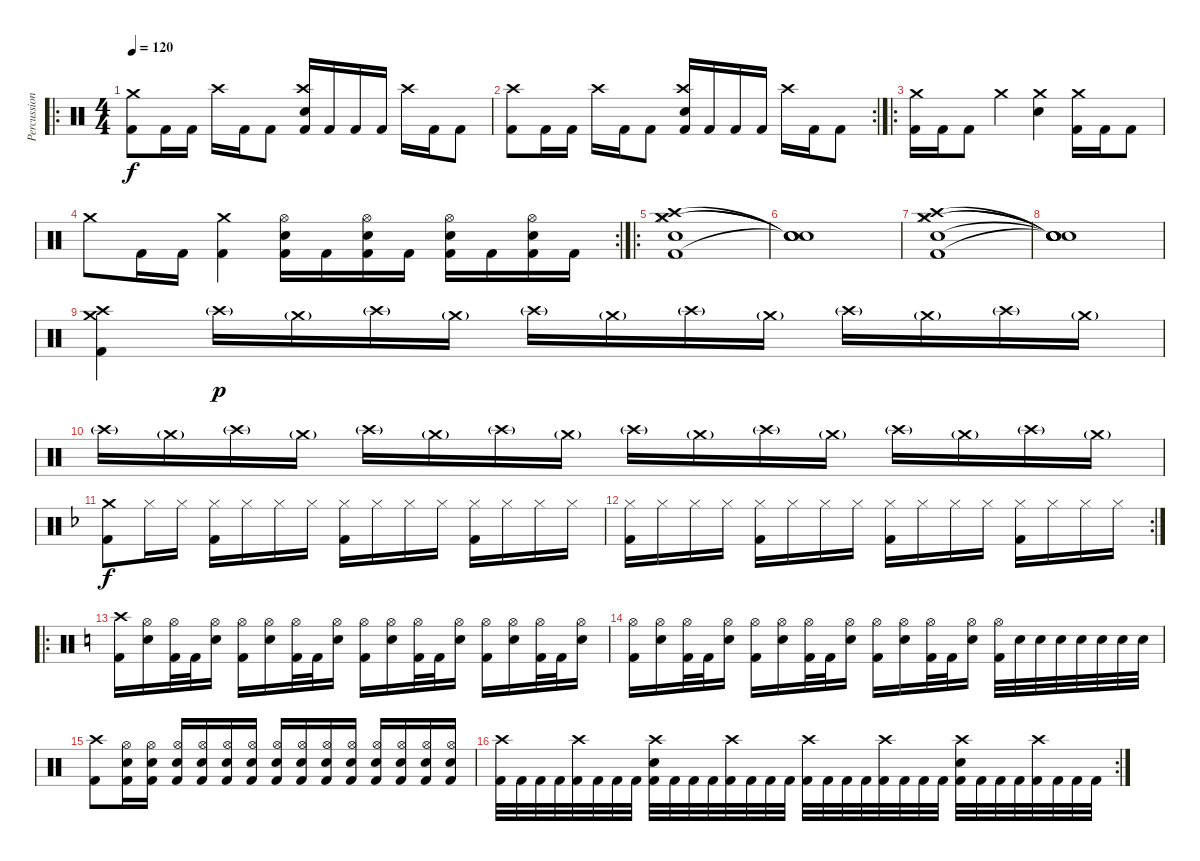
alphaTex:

\track ("Percussions" "Percussion") {instrument percussion}
\staff {score}
\articulation defaults
\ro
\ts (4 4)
\tempo 120
\clef neutral
\ks c
("Crash medium (hit)" "Kick (hit) 2").8{dy f} "Kick (hit) 2".16 "Kick (hit) 2".16 "Crash high (hit)".16 "Kick (hit) 2".16 "Kick (hit) 2".8 ("Crash high (hit)" "Snare (hit) 2" "Kick (hit) 2").16 "Kick (hit) 2".16 "Kick (hit) 2".16 "Kick (hit) 2".16 "Crash high (hit)".16 "Kick (hit) 2".16 "Kick (hit) 2".8 |
\rc 2
("Crash high (hit)" "Kick (hit) 2").8 "Kick (hit) 2".16 "Kick (hit) 2".16 "Crash high (hit)".16 "Kick (hit) 2".16 "Kick (hit) 2".8 ("Crash high (hit)" "Snare (hit) 2" "Kick (hit) 2").16 "Kick (hit) 2".16 "Kick (hit) 2".16 "Kick (hit) 2".16 "Crash high (hit)".16 "Kick (hit) 2".16 "Kick (hit) 2".8 |
\ro
("Crash medium (hit)" "Kick (hit) 2").16 "Kick (hit) 2".16 "Kick (hit) 2".8 "Crash medium (hit)".4 ("Crash medium (hit)" "Snare (hit) 2").4 ("Crash medium (hit)" "Kick (hit) 2").16 "Kick (hit) 2".16 "Kick (hit) 2".8 |
\rc 2 "Crash medium (hit)".8 "Kick (hit) 2".16 "Kick (hit) 2".16
("Crash medium (hit)" "Kick (hit) 2").4 ("Hi-Hat (open)" "Snare (hit) 2" "Kick (hit) 2").16 "Kick (hit) 2".16 ("Hi-Hat (open)" "Snare (hit) 2" "Kick (hit) 2").16 "Kick (hit) 2".16 ("Hi-Hat (open)" "Snare (hit) 2" "Kick (hit) 2").16 "Kick (hit) 2".16 ("Hi-Hat (open)" "Snare (hit) 2" "Kick (hit) 2").16 "Kick (hit) 2".16 |
\ro
("Crash medium (hit)" "Crash high (hit)" "Kick (hit) 2" "Hi-Hat (closed)" "Electric Snare (hit)").1 |
("Snare (hit)"{t} "Snare (hit)"{t} "Snare (hit)"{t} "Snare (hit)"{t}).1 |
("Crash medium (hit)" "Crash high (hit)" "Kick (hit) 2" "Hi-Hat (closed)" "Electric Snare (hit)").1 |
("Snare (hit)"{t} "Snare (hit)"{t} "Snare (hit)"{t} "Snare (hit)"{t} "Snare (hit)"{t}).1 |
("Crash medium (hit)" "Crash high (hit)" "Kick (hit) 2").4 "Crash high (hit)"{g}.16{dy p} "Crash medium (hit)"{g}.16 "Crash high (hit)"{g}.16 "Crash medium (hit)"{g}.16 "Crash high (hit)"{g}.16 "Crash medium (hit)"{g}.16 "Crash high (hit)"{g}.16 "Crash medium (hit)"{g}.16 "Crash high (hit)"{g}.16 "Crash medium (hit)"{g}.16 "Crash high (hit)"{g}.16 "Crash medium (hit)"{g}.16 |
"Crash high (hit)"{g}.16 "Crash medium (hit)"{g}.16 "Crash high (hit)"{g}.16 "Crash medium (hit)"{g}.16 "Crash high (hit)"{g}.16 "Crash medium (hit)"{g}.16 "Crash high (hit)"{g}.16 "Crash medium (hit)"{g}.16 "Crash high (hit)"{g}.16 "Crash medium (hit)"{g}.16 "Crash high (hit)"{g}.16 "Crash medium (hit)"{g}.16 "Crash high (hit)"{g}.16 "Crash medium (hit)"{g}.16 "Crash high (hit)"{g}.16 "Crash medium (hit)"{g}.16 |
\ks f
("Crash medium (hit)" "Kick (hit) 2").8{dy f} "Hi-Hat (closed)".16 "Hi-Hat (closed)".16 ("Hi-Hat (closed)" "Kick (hit) 2").16 "Hi-Hat (closed)".16 "Hi-Hat (closed)".16 "Hi-Hat (closed)".16 ("Hi-Hat (closed)" "Kick (hit) 2").16 "Hi-Hat (closed)".16 "Hi-Hat (closed)".16 "Hi-Hat (closed)".16 ("Hi-Hat (closed)" "Kick (hit) 2").16 "Hi-Hat (closed)".16 "Hi-Hat (closed)".16 "Hi-Hat (closed)".16 |
\rc 2
("Hi-Hat (closed)" "Kick (hit) 2").16 "Hi-Hat (closed)".16 "Hi-Hat (closed)".16 "Hi-Hat (closed)".16 ("Hi-Hat (closed)" "Kick (hit) 2").16 "Hi-Hat (closed)".16 "Hi-Hat (closed)".16 "Hi-Hat (closed)".16 ("Hi-Hat (closed)" "Kick (hit) 2").16 "Hi-Hat (closed)".16 "Hi-Hat (closed)".16 "Hi-Hat (closed)".16 ("Hi-Hat (closed)" "Kick (hit) 2").16 "Hi-Hat (closed)".16 "Hi-Hat (closed)".16 "Hi-Hat (closed)".16 |
\ro
\ks c
("Crash high (hit)" "Kick (hit) 2").16 ("Hi-Hat (open)" "Electric Snare (hit)").16 ("Hi-Hat (open)" "Kick (hit) 2").32 "Kick (hit) 2".32 ("Hi-Hat (open)" "Electric Snare (hit)").16 ("Hi-Hat (open)" "Kick (hit) 2").16 ("Hi-Hat (open)" "Electric Snare (hit)").16 ("Hi-Hat (open)" "Kick (hit) 2").32 "Kick (hit) 2".32 ("Hi-Hat (open)" "Electric Snare (hit)").16 ("Hi-Hat (open)" "Kick (hit) 2").16 ("Hi-Hat (open)" "Electric Snare (hit)").16 ("Hi-Hat (open)" "Kick (hit) 2").32 "Kick (hit) 2".32 ("Hi-Hat (open)" "Electric Snare (hit)").16 ("Hi-Hat (open)" "Kick (hit) 2").16 ("Hi-Hat (open)" "Electric Snare (hit)").16 ("Hi-Hat (open)" "Kick (hit) 2").32 "Kick (hit) 2".32 ("Hi-Hat (open)" "Electric Snare (hit)").16 |
("Hi-Hat (open)" "Kick (hit) 2").16 ("Hi-Hat (open)" "Electric Snare (hit)").16 ("Hi-Hat (open)" "Kick (hit) 2").32 "Kick (hit) 2".32 ("Hi-Hat (open)" "Electric Snare (hit)").16 ("Hi-Hat (open)" "Kick (hit) 2").16 ("Hi-Hat (open)" "Electric Snare (hit)").16 ("Hi-Hat (open)" "Kick (hit) 2").32 "Kick (hit) 2".32 ("Hi-Hat (open)" "Electric Snare (hit)").16 ("Hi-Hat (open)" "Kick (hit) 2").16 ("Hi-Hat (open)" "Electric Snare (hit)").16 ("Hi-Hat (open)" "Kick (hit) 2").32 "Kick (hit) 2".32 ("Hi-Hat (open)" "Electric Snare (hit)").16 ("Hi-Hat (open)" "Kick (hit) 2").32 "Electric Snare (hit)".32 "Electric Snare (hit)".32 "Electric Snare (hit)".32 "Electric Snare (hit)".32 "Electric Snare (hit)".32 "Electric Snare (hit)".32 "Electric Snare (hit)".32 |
("Crash high (hit)" "Kick (hit) 2").8 ("Hi-Hat (open)" "Electric Snare (hit)" "Kick (hit) 2").16 ("Hi-Hat (open)" "Electric Snare (hit)" "Kick (hit) 2").16 ("Hi-Hat (open)" "Electric Snare (hit)" "Kick (hit) 2").16 ("Hi-Hat (open)" "Electric Snare (hit)" "Kick (hit) 2").16 ("Hi-Hat (open)" "Electric Snare (hit)" "Kick (hit) 2").16 ("Hi-Hat (open)" "Electric Snare (hit)" "Kick (hit) 2").16 ("Hi-Hat (open)" "Electric Snare (hit)" "Kick (hit) 2").16 ("Hi-Hat (open)" "Electric Snare (hit)" "Kick (hit) 2").16 ("Hi-Hat (open)" "Electric Snare (hit)" "Kick (hit) 2").16 ("Hi-Hat (open)" "Electric Snare (hit)" "Kick (hit) 2").16 ("Hi-Hat (open)" "Electric Snare (hit)" "Kick (hit) 2").16 ("Hi-Hat (open)" "Electric Snare (hit)" "Kick (hit) 2").16 ("Hi-Hat (open)" "Electric Snare (hit)" "Kick (hit) 2").16 ("Hi-Hat (open)" "Electric Snare (hit)" "Kick (hit) 2").16 |
\rc 2
("Crash high (hit)" "Kick (hit) 2").32 "Kick (hit) 2".32 "Kick (hit) 2".32 "Kick (hit) 2".32 ("Crash high (hit)" "Kick (hit) 2").32 "Kick (hit) 2".32 "Kick (hit) 2".32 "Kick (hit) 2".32 ("Crash high (hit)" "Electric Snare (hit)" "Kick (hit) 2").32 "Kick (hit) 2".32 "Kick (hit) 2".32 "Kick (hit) 2".32 ("Crash high (hit)" "Kick (hit) 2").32 "Kick (hit) 2".32 "Kick (hit) 2".32 "Kick (hit) 2".32 ("Crash high (hit)" "Kick (hit) 2").32 "Kick (hit) 2".32 "Kick (hit) 2".32 "Kick (hit) 2".32 ("Crash high (hit)" "Kick (hit) 2").32 "Kick (hit) 2".32 "Kick (hit) 2".32 "Kick (hit) 2".32 ("Crash high (hit)" "Electric Snare (hit)" "Kick (hit) 2").32 "Kick (hit) 2".32 "Kick (hit) 2".32 "Kick (hit) 2".32 ("Crash high (hit)" "Kick (hit) 2").32 "Kick (hit) 2".32 "Kick (hit) 2".32 "Kick (hit) 2".32
